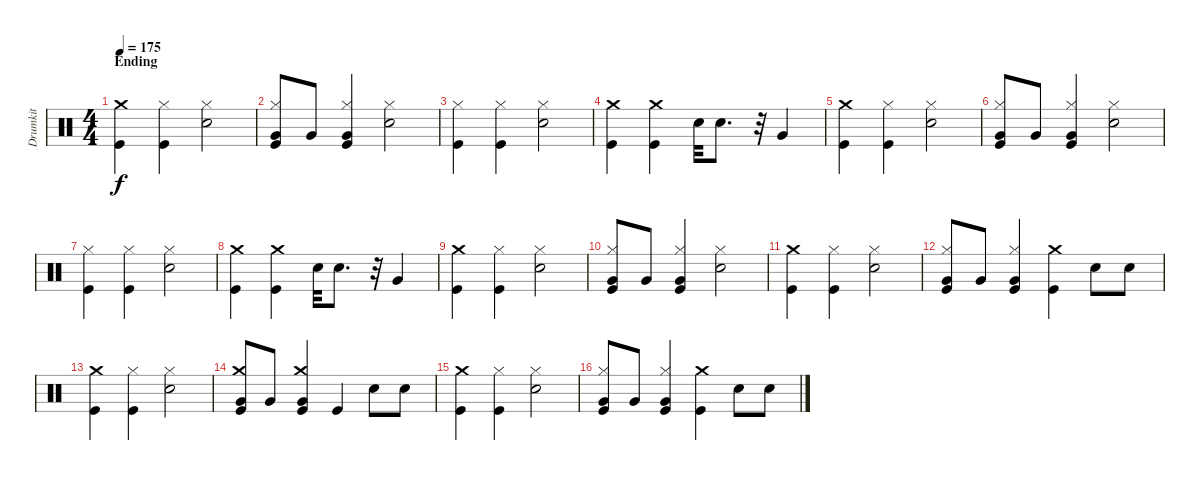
\track ("Drumkit" "Drumkit") {instrument percussion}
\staff {score}
\articulation defaults
\ts (4 4)
\section ("" "Ending")
\tempo 175
\clef neutral
\ks c
("Kick (hit)" "Crash medium (hit)").4{dy f} ("Kick (hit)" "Hi-Hat (closed)").4 ("Snare (hit) 2" "Hi-Hat (closed)").2 |
("Very Low Tom (hit)" "Kick (hit)" "Hi-Hat (closed)").8 "Very Low Tom (hit)".8 ("Very Low Tom (hit)" "Kick (hit)" "Hi-Hat (closed)").4 ("Snare (hit) 2" "Hi-Hat (closed)").2 |
("Kick (hit)" "Hi-Hat (closed)").4 ("Kick (hit)" "Hi-Hat (closed)").4 ("Snare (hit) 2" "Hi-Hat (closed)").2 |
("Kick (hit)" "Crash medium (hit)").4 ("Kick (hit)" "Crash medium (hit)").4 "Snare (hit) 2".32 "Snare (hit) 2".8{d} r.32 "Very Low Tom (hit)".4 |
("Kick (hit)" "Crash medium (hit)").4 ("Kick (hit)" "Hi-Hat (closed)").4 ("Snare (hit) 2" "Hi-Hat (closed)").2 |
("Very Low Tom (hit)" "Kick (hit)" "Hi-Hat (closed)").8 "Very Low Tom (hit)".8 ("Very Low Tom (hit)" "Kick (hit)" "Hi-Hat (closed)").4 ("Snare (hit) 2" "Hi-Hat (closed)").2 |
("Kick (hit)" "Hi-Hat (closed)").4 ("Kick (hit)" "Hi-Hat (closed)").4 ("Snare (hit) 2" "Hi-Hat (closed)").2 |
("Kick (hit)" "Crash medium (hit)").4 ("Kick (hit)" "Crash medium (hit)").4 "Snare (hit) 2".32 "Snare (hit) 2".8{d} r.32 "Very Low Tom (hit)".4 |
("Kick (hit)" "Crash medium (hit)").4 ("Kick (hit)" "Hi-Hat (closed)").4 ("Snare (hit) 2" "Hi-Hat (closed)").2 |
("Very Low Tom (hit)" "Kick (hit)" "Hi-Hat (closed)").8 "Very Low Tom (hit)".8 ("Very Low Tom (hit)" "Kick (hit)" "Hi-Hat (closed)").4 ("Snare (hit) 2" "Hi-Hat (closed)").2 |
("Kick (hit)" "Crash medium (hit)").4 ("Kick (hit)" "Hi-Hat (closed)").4 ("Snare (hit) 2" "Hi-Hat (closed)").2 |
("Very Low Tom (hit)" "Kick (hit)" "Hi-Hat (closed)").8 "Very Low Tom (hit)".8 ("Very Low Tom (hit)" "Kick (hit)" "Hi-Hat (closed)").4 ("Kick (hit)" "Crash medium (hit)").4 "Snare (hit) 2".8 "Snare (hit) 2".8 |
("Kick (hit)" "Crash medium (hit)").4 ("Kick (hit)" "Hi-Hat (closed)").4 ("Snare (hit) 2" "Hi-Hat (closed)").2 |
("Very Low Tom (hit)" "Kick (hit)" "Crash medium (hit)").8 "Very Low Tom (hit)".8 ("Very Low Tom (hit)" "Kick (hit)" "Crash medium (hit)").4 "Kick (hit)".4 "Snare (hit) 2".8 "Snare (hit) 2".8 |
("Kick (hit)" "Crash medium (hit)").4 ("Kick (hit)" "Hi-Hat (closed)").4 ("Snare (hit) 2" "Hi-Hat (closed)").2 |
("Very Low Tom (hit)" "Kick (hit)" "Hi-Hat (closed)").8 "Very Low Tom (hit)".8 ("Very Low Tom (hit)" "Kick (hit)" "Hi-Hat (closed)").4 ("Kick (hit)" "Crash medium (hit)").4 "Snare (hit) 2".8 "Snare (hit) 2".8
